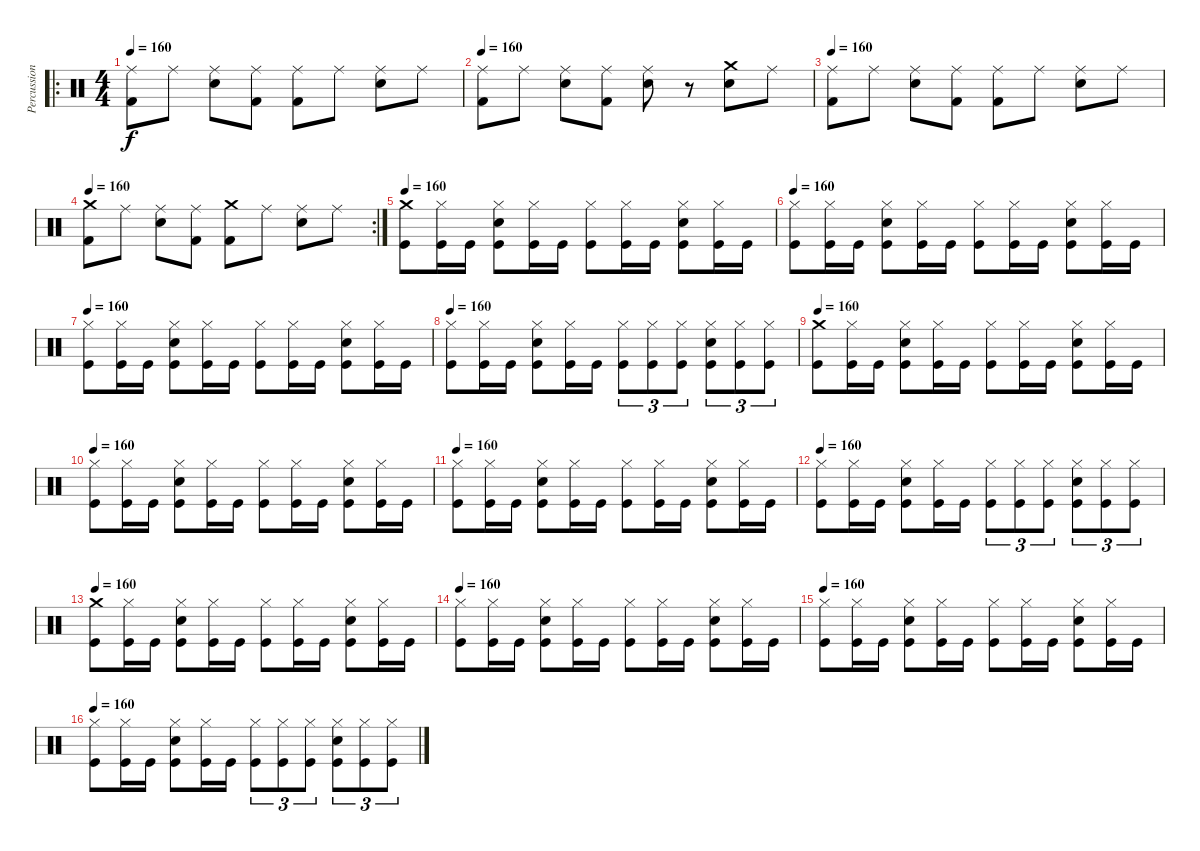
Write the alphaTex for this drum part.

\track ("Percussions" "Percussion") {instrument percussion}
\staff {score}
\articulation defaults
\ro
\ts (4 4)
\tempo 160
\clef neutral
\ks c
("Ride (middle)" "Kick (hit) 2").8{dy f} "Ride (middle)".8 ("Ride (middle)" "Electric Snare (hit)").8 ("Ride (middle)" "Kick (hit) 2").8 ("Ride (middle)" "Kick (hit) 2").8 "Ride (middle)".8 ("Ride (middle)" "Electric Snare (hit)").8 "Ride (middle)".8 |
\tempo 160
("Ride (middle)" "Kick (hit) 2").8 "Ride (middle)".8 ("Ride (middle)" "Electric Snare (hit)").8 ("Ride (middle)" "Kick (hit) 2").8 ("Ride (middle)" "Electric Snare (hit)").8 r.8 ("Crash medium (hit)" "Electric Snare (hit)").8 "Ride (middle)".8 |
\tempo 160
("Ride (middle)" "Kick (hit) 2").8 "Ride (middle)".8 ("Ride (middle)" "Electric Snare (hit)").8 ("Ride (middle)" "Kick (hit) 2").8 ("Ride (middle)" "Kick (hit) 2").8 "Ride (middle)".8 ("Ride (middle)" "Electric Snare (hit)").8 "Ride (middle)".8 |
\rc 2
\tempo 160
("Crash medium (hit)" "Kick (hit) 2").8 "Ride (middle)".8 ("Ride (middle)" "Electric Snare (hit)").8 ("Ride (middle)" "Kick (hit) 2").8 ("Crash medium (hit)" "Kick (hit) 2").8 "Ride (middle)".8 ("Ride (middle)" "Electric Snare (hit)").8 "Ride (middle)".8 |
\tempo 160
("Kick (hit)" "Crash medium (hit)").8 ("Kick (hit)" "Hi-Hat (closed)").16 "Kick (hit)".16 ("Kick (hit)" "Snare (hit) 2" "Hi-Hat (closed)").8 ("Kick (hit)" "Hi-Hat (closed)").16 "Kick (hit)".16 ("Kick (hit)" "Hi-Hat (closed)").8 ("Kick (hit)" "Hi-Hat (closed)").16 "Kick (hit)".16 ("Kick (hit)" "Snare (hit) 2" "Hi-Hat (closed)").8 ("Kick (hit)" "Hi-Hat (closed)").16 "Kick (hit)".16 |
\tempo 160
("Kick (hit)" "Hi-Hat (closed)").8 ("Kick (hit)" "Hi-Hat (closed)").16 "Kick (hit)".16 ("Kick (hit)" "Snare (hit) 2" "Hi-Hat (closed)").8 ("Kick (hit)" "Hi-Hat (closed)").16 "Kick (hit)".16 ("Kick (hit)" "Hi-Hat (closed)").8 ("Kick (hit)" "Hi-Hat (closed)").16 "Kick (hit)".16 ("Kick (hit)" "Snare (hit) 2" "Hi-Hat (closed)").8 ("Kick (hit)" "Hi-Hat (closed)").16 "Kick (hit)".16 |
\tempo 160
("Kick (hit)" "Hi-Hat (closed)").8 ("Kick (hit)" "Hi-Hat (closed)").16 "Kick (hit)".16 ("Kick (hit)" "Snare (hit) 2" "Hi-Hat (closed)").8 ("Kick (hit)" "Hi-Hat (closed)").16 "Kick (hit)".16 ("Kick (hit)" "Hi-Hat (closed)").8 ("Kick (hit)" "Hi-Hat (closed)").16 "Kick (hit)".16 ("Kick (hit)" "Snare (hit) 2" "Hi-Hat (closed)").8 ("Kick (hit)" "Hi-Hat (closed)").16 "Kick (hit)".16 |
\tempo 160
("Kick (hit)" "Hi-Hat (closed)").8 ("Kick (hit)" "Hi-Hat (closed)").16 "Kick (hit)".16 ("Kick (hit)" "Snare (hit) 2" "Hi-Hat (closed)").8 ("Kick (hit)" "Hi-Hat (closed)").16 "Kick (hit)".16 ("Kick (hit)" "Hi-Hat (closed)").8{tu (3 2)} ("Kick (hit)" "Hi-Hat (closed)").8{tu (3 2)} ("Kick (hit)" "Hi-Hat (closed)").8{tu (3 2)} ("Kick (hit)" "Snare (hit) 2" "Hi-Hat (closed)").8{tu (3 2)} ("Kick (hit)" "Hi-Hat (closed)").8{tu (3 2)} ("Kick (hit)" "Hi-Hat (closed)").8{tu (3 2)} |
\tempo 160
("Kick (hit)" "Crash medium (hit)").8 ("Kick (hit)" "Hi-Hat (closed)").16 "Kick (hit)".16 ("Kick (hit)" "Snare (hit) 2" "Hi-Hat (closed)").8 ("Kick (hit)" "Hi-Hat (closed)").16 "Kick (hit)".16 ("Kick (hit)" "Hi-Hat (closed)").8 ("Kick (hit)" "Hi-Hat (closed)").16 "Kick (hit)".16 ("Kick (hit)" "Snare (hit) 2" "Hi-Hat (closed)").8 ("Kick (hit)" "Hi-Hat (closed)").16 "Kick (hit)".16 |
\tempo 160
("Kick (hit)" "Hi-Hat (closed)").8 ("Kick (hit)" "Hi-Hat (closed)").16 "Kick (hit)".16 ("Kick (hit)" "Snare (hit) 2" "Hi-Hat (closed)").8 ("Kick (hit)" "Hi-Hat (closed)").16 "Kick (hit)".16 ("Kick (hit)" "Hi-Hat (closed)").8 ("Kick (hit)" "Hi-Hat (closed)").16 "Kick (hit)".16 ("Kick (hit)" "Snare (hit) 2" "Hi-Hat (closed)").8 ("Kick (hit)" "Hi-Hat (closed)").16 "Kick (hit)".16 |
\tempo 160
("Kick (hit)" "Hi-Hat (closed)").8 ("Kick (hit)" "Hi-Hat (closed)").16 "Kick (hit)".16 ("Kick (hit)" "Snare (hit) 2" "Hi-Hat (closed)").8 ("Kick (hit)" "Hi-Hat (closed)").16 "Kick (hit)".16 ("Kick (hit)" "Hi-Hat (closed)").8 ("Kick (hit)" "Hi-Hat (closed)").16 "Kick (hit)".16 ("Kick (hit)" "Snare (hit) 2" "Hi-Hat (closed)").8 ("Kick (hit)" "Hi-Hat (closed)").16 "Kick (hit)".16 |
\tempo 160
("Kick (hit)" "Hi-Hat (closed)").8 ("Kick (hit)" "Hi-Hat (closed)").16 "Kick (hit)".16 ("Kick (hit)" "Snare (hit) 2" "Hi-Hat (closed)").8 ("Kick (hit)" "Hi-Hat (closed)").16 "Kick (hit)".16 ("Kick (hit)" "Hi-Hat (closed)").8{tu (3 2)} ("Kick (hit)" "Hi-Hat (closed)").8{tu (3 2)} ("Kick (hit)" "Hi-Hat (closed)").8{tu (3 2)} ("Kick (hit)" "Snare (hit) 2" "Hi-Hat (closed)").8{tu (3 2)} ("Kick (hit)" "Hi-Hat (closed)").8{tu (3 2)} ("Kick (hit)" "Hi-Hat (closed)").8{tu (3 2)} |
\tempo 160
("Kick (hit)" "Crash medium (hit)").8 ("Kick (hit)" "Hi-Hat (closed)").16 "Kick (hit)".16 ("Kick (hit)" "Snare (hit) 2" "Hi-Hat (closed)").8 ("Kick (hit)" "Hi-Hat (closed)").16 "Kick (hit)".16 ("Kick (hit)" "Hi-Hat (closed)").8 ("Kick (hit)" "Hi-Hat (closed)").16 "Kick (hit)".16 ("Kick (hit)" "Snare (hit) 2" "Hi-Hat (closed)").8 ("Kick (hit)" "Hi-Hat (closed)").16 "Kick (hit)".16 |
\tempo 160
("Kick (hit)" "Hi-Hat (closed)").8 ("Kick (hit)" "Hi-Hat (closed)").16 "Kick (hit)".16 ("Kick (hit)" "Snare (hit) 2" "Hi-Hat (closed)").8 ("Kick (hit)" "Hi-Hat (closed)").16 "Kick (hit)".16 ("Kick (hit)" "Hi-Hat (closed)").8 ("Kick (hit)" "Hi-Hat (closed)").16 "Kick (hit)".16 ("Kick (hit)" "Snare (hit) 2" "Hi-Hat (closed)").8 ("Kick (hit)" "Hi-Hat (closed)").16 "Kick (hit)".16 |
\tempo 160
("Kick (hit)" "Hi-Hat (closed)").8 ("Kick (hit)" "Hi-Hat (closed)").16 "Kick (hit)".16 ("Kick (hit)" "Snare (hit) 2" "Hi-Hat (closed)").8 ("Kick (hit)" "Hi-Hat (closed)").16 "Kick (hit)".16 ("Kick (hit)" "Hi-Hat (closed)").8 ("Kick (hit)" "Hi-Hat (closed)").16 "Kick (hit)".16 ("Kick (hit)" "Snare (hit) 2" "Hi-Hat (closed)").8 ("Kick (hit)" "Hi-Hat (closed)").16 "Kick (hit)".16 |
\tempo 160
("Kick (hit)" "Hi-Hat (closed)").8 ("Kick (hit)" "Hi-Hat (closed)").16 "Kick (hit)".16 ("Kick (hit)" "Snare (hit) 2" "Hi-Hat (closed)").8 ("Kick (hit)" "Hi-Hat (closed)").16 "Kick (hit)".16 ("Kick (hit)" "Hi-Hat (closed)").8{tu (3 2)} ("Kick (hit)" "Hi-Hat (closed)").8{tu (3 2)} ("Kick (hit)" "Hi-Hat (closed)").8{tu (3 2)} ("Kick (hit)" "Snare (hit) 2" "Hi-Hat (closed)").8{tu (3 2)} ("Kick (hit)" "Hi-Hat (closed)").8{tu (3 2)} ("Kick (hit)" "Hi-Hat (closed)").8{tu (3 2)}
